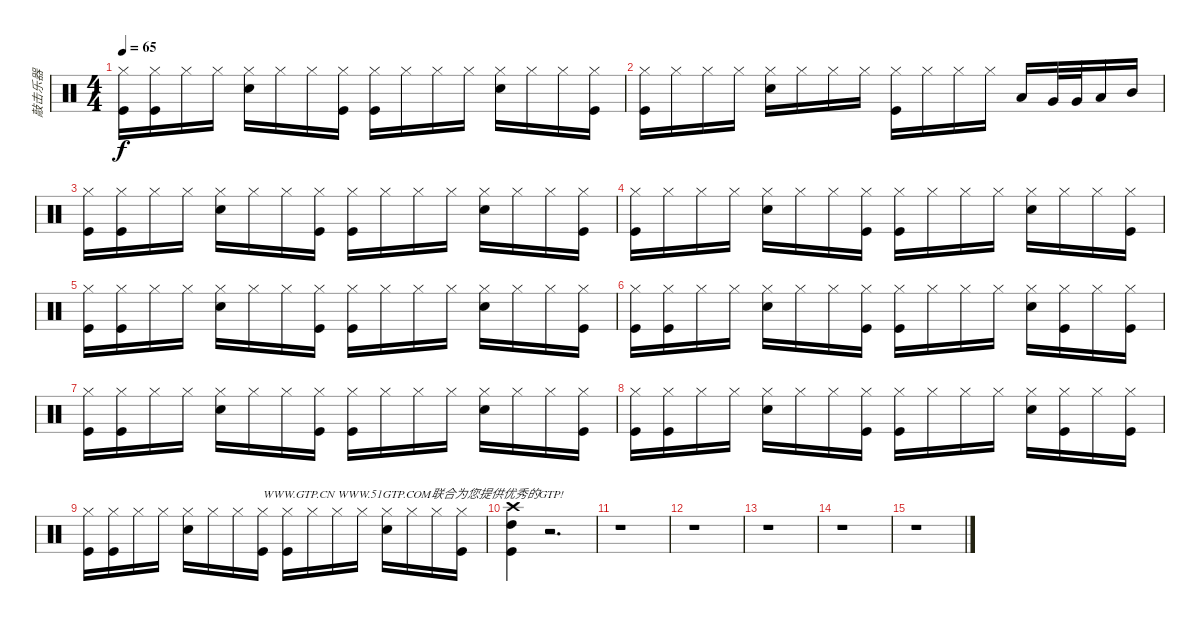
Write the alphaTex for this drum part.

\track ("敲击乐器" "敲击乐器") {instrument percussion}
\staff {score}
\articulation defaults
\ts (4 4)
\tempo 65
\clef neutral
\ks c
("Kick (hit)" "Hi-Hat (closed)").16{dy f} ("Kick (hit)" "Hi-Hat (closed)").16 "Hi-Hat (closed)".16 "Hi-Hat (closed)".16 ("Electric Snare (hit)" "Hi-Hat (closed)").16 "Hi-Hat (closed)".16 "Hi-Hat (closed)".16 ("Kick (hit)" "Hi-Hat (closed)").16 ("Kick (hit)" "Hi-Hat (closed)").16 "Hi-Hat (closed)".16 "Hi-Hat (closed)".16 "Hi-Hat (closed)".16 ("Electric Snare (hit)" "Hi-Hat (closed)").16 "Hi-Hat (closed)".16 "Hi-Hat (closed)".16 ("Kick (hit)" "Hi-Hat (closed)").16 |
("Kick (hit)" "Hi-Hat (closed)").16 "Hi-Hat (closed)".16 "Hi-Hat (closed)".16 "Hi-Hat (closed)".16 ("Electric Snare (hit)" "Hi-Hat (closed)").16 "Hi-Hat (closed)".16 "Hi-Hat (closed)".16 "Hi-Hat (closed)".16 ("Kick (hit)" "Hi-Hat (closed)").16 "Hi-Hat (closed)".16 "Hi-Hat (closed)".16 "Hi-Hat (closed)".16 "Low Floor Tom (hit)".16 "Very Low Tom (hit)".32 "Very Low Tom (hit)".32 "Low Tom (hit)".16 "Mid Tom (hit)".16 |
("Kick (hit)" "Hi-Hat (closed)").16 ("Kick (hit)" "Hi-Hat (closed)").16 "Hi-Hat (closed)".16 "Hi-Hat (closed)".16 ("Electric Snare (hit)" "Hi-Hat (closed)").16 "Hi-Hat (closed)".16 "Hi-Hat (closed)".16 ("Kick (hit)" "Hi-Hat (closed)").16 ("Kick (hit)" "Hi-Hat (closed)").16 "Hi-Hat (closed)".16 "Hi-Hat (closed)".16 "Hi-Hat (closed)".16 ("Electric Snare (hit)" "Hi-Hat (closed)").16 "Hi-Hat (closed)".16 "Hi-Hat (closed)".16 ("Kick (hit)" "Hi-Hat (closed)").16 |
("Kick (hit)" "Hi-Hat (closed)").16 "Hi-Hat (closed)".16 "Hi-Hat (closed)".16 "Hi-Hat (closed)".16 ("Electric Snare (hit)" "Hi-Hat (closed)").16 "Hi-Hat (closed)".16 "Hi-Hat (closed)".16 ("Kick (hit)" "Hi-Hat (closed)").16 ("Kick (hit)" "Hi-Hat (closed)").16 "Hi-Hat (closed)".16 "Hi-Hat (closed)".16 "Hi-Hat (closed)".16 ("Electric Snare (hit)" "Hi-Hat (closed)").16 "Hi-Hat (closed)".16 "Hi-Hat (closed)".16 ("Kick (hit)" "Hi-Hat (closed)").16 |
("Kick (hit)" "Hi-Hat (closed)").16 ("Kick (hit)" "Hi-Hat (closed)").16 "Hi-Hat (closed)".16 "Hi-Hat (closed)".16 ("Electric Snare (hit)" "Hi-Hat (closed)").16 "Hi-Hat (closed)".16 "Hi-Hat (closed)".16 ("Kick (hit)" "Hi-Hat (closed)").16 ("Kick (hit)" "Hi-Hat (closed)").16 "Hi-Hat (closed)".16 "Hi-Hat (closed)".16 "Hi-Hat (closed)".16 ("Electric Snare (hit)" "Hi-Hat (closed)").16 "Hi-Hat (closed)".16 "Hi-Hat (closed)".16 ("Kick (hit)" "Hi-Hat (closed)").16 |
("Kick (hit)" "Hi-Hat (closed)").16 ("Kick (hit)" "Hi-Hat (closed)").16 "Hi-Hat (closed)".16 "Hi-Hat (closed)".16 ("Electric Snare (hit)" "Hi-Hat (closed)").16 "Hi-Hat (closed)".16 "Hi-Hat (closed)".16 ("Kick (hit)" "Hi-Hat (closed)").16 ("Kick (hit)" "Hi-Hat (closed)").16 "Hi-Hat (closed)".16 "Hi-Hat (closed)".16 "Hi-Hat (closed)".16 ("Electric Snare (hit)" "Hi-Hat (closed)").16 ("Kick (hit)" "Hi-Hat (closed)").16 "Hi-Hat (closed)".16 ("Kick (hit)" "Hi-Hat (closed)").16 |
("Kick (hit)" "Hi-Hat (closed)").16 ("Kick (hit)" "Hi-Hat (closed)").16 "Hi-Hat (closed)".16 "Hi-Hat (closed)".16 ("Electric Snare (hit)" "Hi-Hat (closed)").16 "Hi-Hat (closed)".16 "Hi-Hat (closed)".16 ("Kick (hit)" "Hi-Hat (closed)").16 ("Kick (hit)" "Hi-Hat (closed)").16 "Hi-Hat (closed)".16 "Hi-Hat (closed)".16 "Hi-Hat (closed)".16 ("Electric Snare (hit)" "Hi-Hat (closed)").16 "Hi-Hat (closed)".16 "Hi-Hat (closed)".16 ("Kick (hit)" "Hi-Hat (closed)").16 |
("Kick (hit)" "Hi-Hat (closed)").16 ("Kick (hit)" "Hi-Hat (closed)").16 "Hi-Hat (closed)".16 "Hi-Hat (closed)".16 ("Electric Snare (hit)" "Hi-Hat (closed)").16 "Hi-Hat (closed)".16 "Hi-Hat (closed)".16 ("Kick (hit)" "Hi-Hat (closed)").16 ("Kick (hit)" "Hi-Hat (closed)").16 "Hi-Hat (closed)".16 "Hi-Hat (closed)".16 "Hi-Hat (closed)".16 ("Electric Snare (hit)" "Hi-Hat (closed)").16 ("Kick (hit)" "Hi-Hat (closed)").16 "Hi-Hat (closed)".16 ("Kick (hit)" "Hi-Hat (closed)").16 |
("Kick (hit)" "Hi-Hat (closed)").16 ("Kick (hit)" "Hi-Hat (closed)").16 "Hi-Hat (closed)".16 "Hi-Hat (closed)".16 ("Electric Snare (hit)" "Hi-Hat (closed)").16 "Hi-Hat (closed)".16 "Hi-Hat (closed)".16 ("Kick (hit)" "Hi-Hat (closed)").16{txt "WWW.GTP.CN WWW.51GTP.COM联合为您提供优秀的GTP!"} ("Kick (hit)" "Hi-Hat (closed)").16 "Hi-Hat (closed)".16 "Hi-Hat (closed)".16 "Hi-Hat (closed)".16 ("Electric Snare (hit)" "Hi-Hat (closed)").16 "Hi-Hat (closed)".16 "Hi-Hat (closed)".16 ("Kick (hit)" "Hi-Hat (closed)").16 |
("High Tom (hit)" "Crash high (hit)" "Kick (hit)").4 r.2{d} |
r.1 |
r.1 |
r.1 |
r.1 |
r.1
